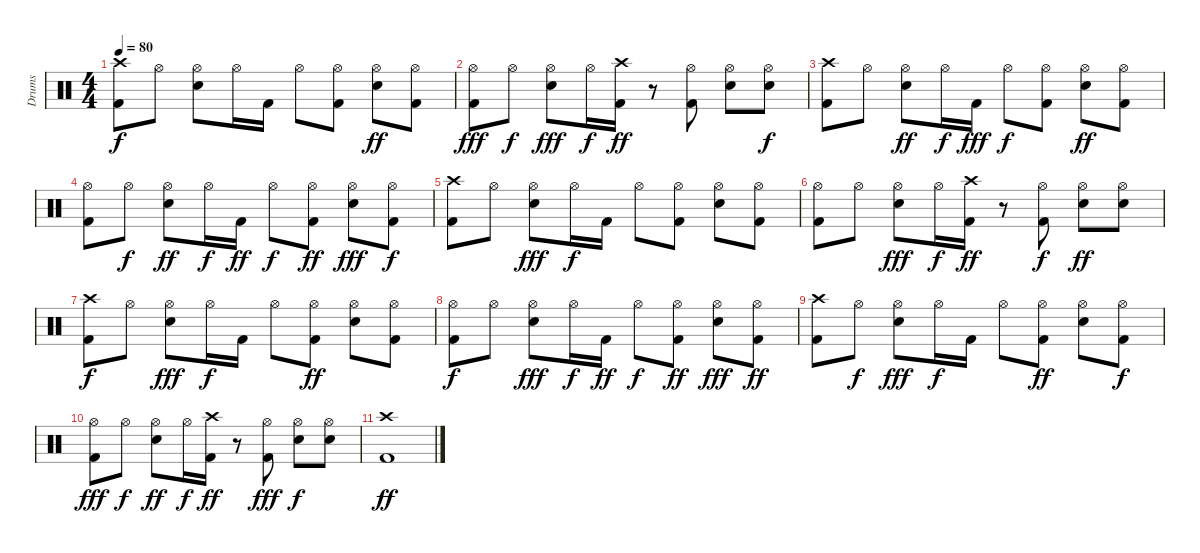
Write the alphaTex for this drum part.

\track ("Drums" "Drums") {instrument percussion}
\staff {score}
\articulation defaults
\ts (4 4)
\tempo 80
\clef neutral
\ks c
("Kick (hit) 2" "Crash high (hit)").8{dy f} "Hi-Hat (open)".8 ("Snare (hit) 2" "Hi-Hat (open)").8 "Hi-Hat (open)".16 "Kick (hit) 2".16 "Hi-Hat (open)".8 ("Kick (hit) 2" "Hi-Hat (open)").8 ("Snare (hit) 2" "Hi-Hat (open)").8{dy ff} ("Kick (hit) 2" "Hi-Hat (open)").8 |
("Kick (hit) 2" "Hi-Hat (open)").8{dy fff} "Hi-Hat (open)".8{dy f} ("Snare (hit) 2" "Hi-Hat (open)").8{dy fff} "Hi-Hat (open)".16{dy f} ("Kick (hit) 2" "Crash high (hit)").16{dy ff} r.8 ("Kick (hit) 2" "Hi-Hat (open)").8 ("Snare (hit) 2" "Hi-Hat (open)").8 ("Snare (hit) 2" "Hi-Hat (open)").8{dy f} |
("Kick (hit) 2" "Crash high (hit)").8 "Hi-Hat (open)".8 ("Snare (hit) 2" "Hi-Hat (open)").8{dy ff} "Hi-Hat (open)".16{dy f} "Kick (hit) 2".16{dy fff} "Hi-Hat (open)".8{dy f} ("Kick (hit) 2" "Hi-Hat (open)").8 ("Snare (hit) 2" "Hi-Hat (open)").8{dy ff} ("Kick (hit) 2" "Hi-Hat (open)").8 |
("Kick (hit) 2" "Hi-Hat (open)").8 "Hi-Hat (open)".8{dy f} ("Snare (hit) 2" "Hi-Hat (open)").8{dy ff} "Hi-Hat (open)".16{dy f} "Kick (hit) 2".16{dy ff} "Hi-Hat (open)".8{dy f} ("Kick (hit) 2" "Hi-Hat (open)").8{dy ff} ("Snare (hit) 2" "Hi-Hat (open)").8{dy fff} ("Kick (hit) 2" "Hi-Hat (open)").8{dy f} |
("Kick (hit) 2" "Crash high (hit)").8 "Hi-Hat (open)".8 ("Snare (hit) 2" "Hi-Hat (open)").8{dy fff} "Hi-Hat (open)".16{dy f} "Kick (hit) 2".16 "Hi-Hat (open)".8 ("Kick (hit) 2" "Hi-Hat (open)").8 ("Snare (hit) 2" "Hi-Hat (open)").8 ("Kick (hit) 2" "Hi-Hat (open)").8 |
("Kick (hit) 2" "Hi-Hat (open)").8 "Hi-Hat (open)".8 ("Snare (hit) 2" "Hi-Hat (open)").8{dy fff} "Hi-Hat (open)".16{dy f} ("Kick (hit) 2" "Crash high (hit)").16{dy ff} r.8 ("Kick (hit) 2" "Hi-Hat (open)").8{dy f} ("Snare (hit) 2" "Hi-Hat (open)").8{dy ff} ("Snare (hit) 2" "Hi-Hat (open)").8 |
("Kick (hit) 2" "Crash high (hit)").8{dy f} "Hi-Hat (open)".8 ("Snare (hit) 2" "Hi-Hat (open)").8{dy fff} "Hi-Hat (open)".16{dy f} "Kick (hit) 2".16 "Hi-Hat (open)".8 ("Kick (hit) 2" "Hi-Hat (open)").8{dy ff} ("Snare (hit) 2" "Hi-Hat (open)").8 ("Kick (hit) 2" "Hi-Hat (open)").8 |
("Kick (hit) 2" "Hi-Hat (open)").8{dy f} "Hi-Hat (open)".8 ("Snare (hit) 2" "Hi-Hat (open)").8{dy fff} "Hi-Hat (open)".16{dy f} "Kick (hit) 2".16{dy ff} "Hi-Hat (open)".8{dy f} ("Kick (hit) 2" "Hi-Hat (open)").8{dy ff} ("Snare (hit) 2" "Hi-Hat (open)").8{dy fff} ("Kick (hit) 2" "Hi-Hat (open)").8{dy ff} |
("Kick (hit) 2" "Crash high (hit)").8 "Hi-Hat (open)".8{dy f} ("Snare (hit) 2" "Hi-Hat (open)").8{dy fff} "Hi-Hat (open)".16{dy f} "Kick (hit) 2".16 "Hi-Hat (open)".8 ("Kick (hit) 2" "Hi-Hat (open)").8{dy ff} ("Snare (hit) 2" "Hi-Hat (open)").8 ("Kick (hit) 2" "Hi-Hat (open)").8{dy f} |
("Kick (hit) 2" "Hi-Hat (open)").8{dy fff} "Hi-Hat (open)".8{dy f} ("Snare (hit) 2" "Hi-Hat (open)").8{dy ff} "Hi-Hat (open)".16{dy f} ("Kick (hit) 2" "Crash high (hit)").16{dy ff} r.8 ("Kick (hit) 2" "Hi-Hat (open)").8{dy fff} ("Snare (hit) 2" "Hi-Hat (open)").8{dy f} ("Snare (hit) 2" "Hi-Hat (open)").8 |
("Kick (hit) 2" "Crash high (hit)").1{dy ff}
